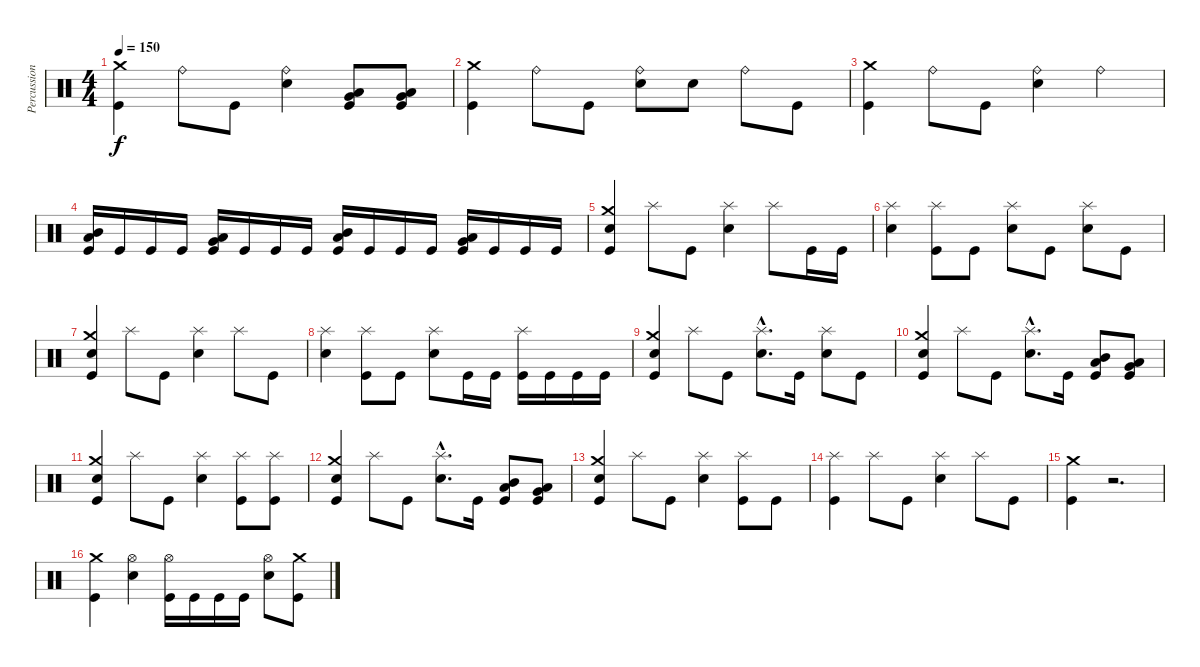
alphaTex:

\track ("Percussions" "Percussion") {instrument percussion}
\staff {score}
\articulation defaults
\ts (4 4)
\tempo 150
\clef neutral
\ks c
("Kick (hit)" "Crash medium (hit)").4{dy f} "Ride (bell)".8 "Kick (hit)".8 ("Electric Snare (hit)" "Ride (bell)").4 ("Kick (hit)" "Low Tom (hit)" "Very Low Tom (hit)").8 ("Kick (hit)" "Very Low Tom (hit)" "Low Floor Tom (hit)").8 |
("Kick (hit)" "Crash medium (hit)").4 "Ride (bell)".8 "Kick (hit)".8 ("Electric Snare (hit)" "Ride (bell)").8 "Electric Snare (hit)".8 "Ride (bell)".8 "Kick (hit)".8 |
("Kick (hit)" "Crash medium (hit)").4 "Ride (bell)".8 "Kick (hit)".8 ("Electric Snare (hit)" "Ride (bell)").4 "Ride (bell)".4 |
("Kick (hit)" "Mid Tom (hit)" "Low Tom (hit)").16 "Kick (hit)".16 "Kick (hit)".16 "Kick (hit)".16 ("Kick (hit)" "Very Low Tom (hit)" "Low Tom (hit)").16 "Kick (hit)".16 "Kick (hit)".16 "Kick (hit)".16 ("Kick (hit)" "Mid Tom (hit)" "Low Tom (hit)").16 "Kick (hit)".16 "Kick (hit)".16 "Kick (hit)".16 ("Kick (hit)" "Very Low Tom (hit)" "Low Tom (hit)").16 "Kick (hit)".16 "Kick (hit)".16 "Kick (hit)".16 |
("Kick (hit)" "Electric Snare (hit)" "Crash medium (hit)").4 "Splash (hit)".8 "Kick (hit)".8 ("Electric Snare (hit)" "Splash (hit)").4 "Splash (hit)".8 "Kick (hit)".16 "Kick (hit)".16 |
("Electric Snare (hit)" "Splash (hit)").4 ("Kick (hit)" "Splash (hit)").8 "Kick (hit)".8 ("Electric Snare (hit)" "Splash (hit)").8 "Kick (hit)".8 ("Electric Snare (hit)" "Splash (hit)").8 "Kick (hit)".8 |
("Kick (hit)" "Electric Snare (hit)" "Crash medium (hit)").4 "Splash (hit)".8 "Kick (hit)".8 ("Electric Snare (hit)" "Splash (hit)").4 "Splash (hit)".8 "Kick (hit)".8 |
("Electric Snare (hit)" "Splash (hit)").4 ("Kick (hit)" "Splash (hit)").8 "Kick (hit)".8 ("Electric Snare (hit)" "Splash (hit)").8 "Kick (hit)".16 "Kick (hit)".16 ("Kick (hit)" "Splash (hit)").16 "Kick (hit)".16 "Kick (hit)".16 "Kick (hit)".16 |
("Kick (hit)" "Electric Snare (hit)" "Crash medium (hit)").4 "Splash (hit)".8 "Kick (hit)".8 ("Electric Snare (hit)"{hac} "Splash (hit)"{hac}).8{d} "Kick (hit)".16 ("Electric Snare (hit)" "Splash (hit)").8 "Kick (hit)".8 |
("Kick (hit)" "Electric Snare (hit)" "Crash medium (hit)").4 "Splash (hit)".8 "Kick (hit)".8 ("Electric Snare (hit)"{hac} "Splash (hit)"{hac}).8{d} "Kick (hit)".16 ("Kick (hit)" "Mid Tom (hit)" "Low Tom (hit)").8 ("Kick (hit)" "Low Tom (hit)" "Very Low Tom (hit)").8 |
("Kick (hit)" "Electric Snare (hit)" "Crash medium (hit)").4 "Splash (hit)".8 "Kick (hit)".8 ("Electric Snare (hit)" "Splash (hit)").4 ("Kick (hit)" "Splash (hit)").8 ("Kick (hit)" "Splash (hit)").8 |
("Kick (hit)" "Electric Snare (hit)" "Crash medium (hit)").4 "Splash (hit)".8 "Kick (hit)".8 ("Electric Snare (hit)"{hac} "Splash (hit)"{hac}).8{d} "Kick (hit)".16 ("Kick (hit)" "Mid Tom (hit)" "Low Tom (hit)").8 ("Kick (hit)" "Very Low Tom (hit)" "Low Floor Tom (hit)").8 |
("Kick (hit)" "Electric Snare (hit)" "Crash medium (hit)").4 "Splash (hit)".8 "Kick (hit)".8 ("Electric Snare (hit)" "Splash (hit)").4 ("Kick (hit)" "Splash (hit)").8 "Kick (hit)".8 |
("Kick (hit)" "Splash (hit)").4 "Splash (hit)".8 "Kick (hit)".8 ("Electric Snare (hit)" "Splash (hit)").4 "Splash (hit)".8 "Kick (hit)".8 |
("Kick (hit)" "Crash medium (hit)").4 r.2{d} |
("Kick (hit)" "Crash medium (hit)").4 ("Electric Snare (hit)" "Hi-Hat (open)").4 ("Kick (hit)" "Hi-Hat (open)").16 "Kick (hit)".16 "Kick (hit)".16 "Kick (hit)".16 ("Electric Snare (hit)" "Hi-Hat (open)").8 ("Kick (hit)" "Crash medium (hit)").8
